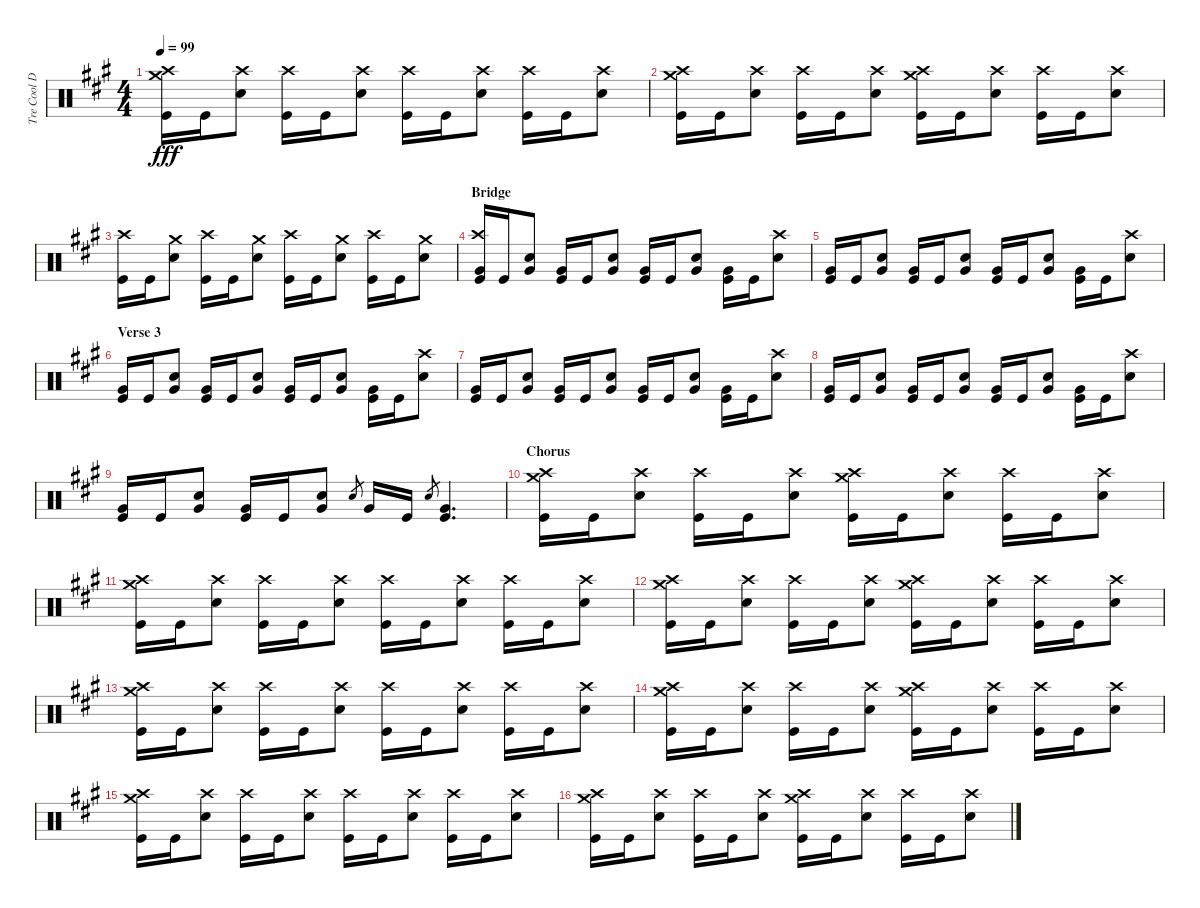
\track ("Tre Cool Drums" "Tre Cool D") {instrument percussion}
\staff {score}
\articulation defaults
\ts (4 4)
\tempo 99
\clef neutral
\ks a
("Kick (hit)" "Crash high (hit)" "Crash medium (hit)").16{dy fff} "Kick (hit)".16 ("Snare (hit) 2" "Crash high (hit)").8 ("Kick (hit)" "Crash high (hit)").16 "Kick (hit)".16 ("Snare (hit) 2" "Crash high (hit)").8 ("Kick (hit)" "Crash high (hit)").16 "Kick (hit)".16 ("Snare (hit) 2" "Crash high (hit)").8 ("Kick (hit)" "Crash high (hit)").16 "Kick (hit)".16 ("Snare (hit) 2" "Crash high (hit)").8 |
("Kick (hit)" "Crash high (hit)" "Crash medium (hit)").16 "Kick (hit)".16 ("Snare (hit) 2" "Crash high (hit)").8 ("Kick (hit)" "Crash high (hit)").16 "Kick (hit)".16 ("Snare (hit) 2" "Crash high (hit)").8 ("Kick (hit)" "Crash high (hit)" "Crash medium (hit)").16 "Kick (hit)".16 ("Snare (hit) 2" "Crash high (hit)").8 ("Kick (hit)" "Crash high (hit)").16 "Kick (hit)".16 ("Snare (hit) 2" "Crash high (hit)").8 |
("Kick (hit)" "Crash high (hit)").16 "Kick (hit)".16 ("Snare (hit) 2" "Crash medium (hit)").8 ("Kick (hit)" "Crash high (hit)").16 "Kick (hit)".16 ("Snare (hit) 2" "Crash medium (hit)").8 ("Kick (hit)" "Crash high (hit)").16 "Kick (hit)".16 ("Snare (hit) 2" "Crash medium (hit)").8 ("Kick (hit)" "Crash high (hit)").16 "Kick (hit)".16 ("Snare (hit) 2" "Crash medium (hit)").8 |
\section ("" "Bridge")
("Very Low Tom (hit)" "Kick (hit)" "Crash high (hit)").16 "Kick (hit)".16 ("Snare (hit) 2" "Very Low Tom (hit)").8 ("Very Low Tom (hit)" "Kick (hit)").16 "Kick (hit)".16 ("Snare (hit) 2" "Very Low Tom (hit)").8 ("Very Low Tom (hit)" "Kick (hit)").16 "Kick (hit)".16 ("Snare (hit) 2" "Very Low Tom (hit)").8 ("Very Low Tom (hit)" "Kick (hit)").16 "Kick (hit)".16 ("Snare (hit) 2" "Crash high (hit)").8 |
("Very Low Tom (hit)" "Kick (hit)").16 "Kick (hit)".16 ("Snare (hit) 2" "Very Low Tom (hit)").8 ("Very Low Tom (hit)" "Kick (hit)").16 "Kick (hit)".16 ("Snare (hit) 2" "Very Low Tom (hit)").8 ("Very Low Tom (hit)" "Kick (hit)").16 "Kick (hit)".16 ("Snare (hit) 2" "Very Low Tom (hit)").8 ("Very Low Tom (hit)" "Kick (hit)").16 "Kick (hit)".16 ("Snare (hit) 2" "Crash high (hit)").8 |
\section ("" "Verse 3")
("Very Low Tom (hit)" "Kick (hit)").16 "Kick (hit)".16 ("Snare (hit) 2" "Very Low Tom (hit)").8 ("Very Low Tom (hit)" "Kick (hit)").16 "Kick (hit)".16 ("Snare (hit) 2" "Very Low Tom (hit)").8 ("Very Low Tom (hit)" "Kick (hit)").16 "Kick (hit)".16 ("Snare (hit) 2" "Very Low Tom (hit)").8 ("Very Low Tom (hit)" "Kick (hit)").16 "Kick (hit)".16 ("Snare (hit) 2" "Crash high (hit)").8 |
("Very Low Tom (hit)" "Kick (hit)").16 "Kick (hit)".16 ("Snare (hit) 2" "Very Low Tom (hit)").8 ("Very Low Tom (hit)" "Kick (hit)").16 "Kick (hit)".16 ("Snare (hit) 2" "Very Low Tom (hit)").8 ("Very Low Tom (hit)" "Kick (hit)").16 "Kick (hit)".16 ("Snare (hit) 2" "Very Low Tom (hit)").8 ("Very Low Tom (hit)" "Kick (hit)").16 "Kick (hit)".16 ("Snare (hit) 2" "Crash high (hit)").8 |
("Very Low Tom (hit)" "Kick (hit)").16 "Kick (hit)".16 ("Snare (hit) 2" "Very Low Tom (hit)").8 ("Very Low Tom (hit)" "Kick (hit)").16 "Kick (hit)".16 ("Snare (hit) 2" "Very Low Tom (hit)").8 ("Very Low Tom (hit)" "Kick (hit)").16 "Kick (hit)".16 ("Snare (hit) 2" "Very Low Tom (hit)").8 ("Very Low Tom (hit)" "Kick (hit)").16 "Kick (hit)".16 ("Snare (hit) 2" "Crash high (hit)").8 |
("Very Low Tom (hit)" "Kick (hit)").16 "Kick (hit)".16 ("Snare (hit) 2" "Very Low Tom (hit)").8 ("Very Low Tom (hit)" "Kick (hit)").16 "Kick (hit)".16 ("Snare (hit) 2" "Very Low Tom (hit)").8 "Snare (hit)".8{gr} "Very Low Tom (hit)".16 "Kick (hit)".16 "Snare (hit)".8{gr} ("Very Low Tom (hit)" "Kick (hit)").4{d} |
\section ("" "Chorus")
("Kick (hit)" "Crash high (hit)" "Crash medium (hit)").16 "Kick (hit)".16 ("Snare (hit) 2" "Crash high (hit)").8 ("Kick (hit)" "Crash high (hit)").16 "Kick (hit)".16 ("Snare (hit) 2" "Crash high (hit)").8 ("Kick (hit)" "Crash high (hit)" "Crash medium (hit)").16 "Kick (hit)".16 ("Snare (hit) 2" "Crash high (hit)").8 ("Kick (hit)" "Crash high (hit)").16 "Kick (hit)".16 ("Snare (hit) 2" "Crash high (hit)").8 |
("Kick (hit)" "Crash high (hit)" "Crash medium (hit)").16 "Kick (hit)".16 ("Snare (hit) 2" "Crash high (hit)").8 ("Kick (hit)" "Crash high (hit)").16 "Kick (hit)".16 ("Snare (hit) 2" "Crash high (hit)").8 ("Kick (hit)" "Crash high (hit)").16 "Kick (hit)".16 ("Snare (hit) 2" "Crash high (hit)").8 ("Kick (hit)" "Crash high (hit)").16 "Kick (hit)".16 ("Snare (hit) 2" "Crash high (hit)").8 |
("Kick (hit)" "Crash high (hit)" "Crash medium (hit)").16 "Kick (hit)".16 ("Snare (hit) 2" "Crash high (hit)").8 ("Kick (hit)" "Crash high (hit)").16 "Kick (hit)".16 ("Snare (hit) 2" "Crash high (hit)").8 ("Kick (hit)" "Crash high (hit)" "Crash medium (hit)").16 "Kick (hit)".16 ("Snare (hit) 2" "Crash high (hit)").8 ("Kick (hit)" "Crash high (hit)").16 "Kick (hit)".16 ("Snare (hit) 2" "Crash high (hit)").8 |
("Kick (hit)" "Crash high (hit)" "Crash medium (hit)").16 "Kick (hit)".16 ("Snare (hit) 2" "Crash high (hit)").8 ("Kick (hit)" "Crash high (hit)").16 "Kick (hit)".16 ("Snare (hit) 2" "Crash high (hit)").8 ("Kick (hit)" "Crash high (hit)").16 "Kick (hit)".16 ("Snare (hit) 2" "Crash high (hit)").8 ("Kick (hit)" "Crash high (hit)").16 "Kick (hit)".16 ("Snare (hit) 2" "Crash high (hit)").8 |
("Kick (hit)" "Crash high (hit)" "Crash medium (hit)").16 "Kick (hit)".16 ("Snare (hit) 2" "Crash high (hit)").8 ("Kick (hit)" "Crash high (hit)").16 "Kick (hit)".16 ("Snare (hit) 2" "Crash high (hit)").8 ("Kick (hit)" "Crash high (hit)" "Crash medium (hit)").16 "Kick (hit)".16 ("Snare (hit) 2" "Crash high (hit)").8 ("Kick (hit)" "Crash high (hit)").16 "Kick (hit)".16 ("Snare (hit) 2" "Crash high (hit)").8 |
("Kick (hit)" "Crash high (hit)" "Crash medium (hit)").16 "Kick (hit)".16 ("Snare (hit) 2" "Crash high (hit)").8 ("Kick (hit)" "Crash high (hit)").16 "Kick (hit)".16 ("Snare (hit) 2" "Crash high (hit)").8 ("Kick (hit)" "Crash high (hit)").16 "Kick (hit)".16 ("Snare (hit) 2" "Crash high (hit)").8 ("Kick (hit)" "Crash high (hit)").16 "Kick (hit)".16 ("Snare (hit) 2" "Crash high (hit)").8 |
("Kick (hit)" "Crash high (hit)" "Crash medium (hit)").16 "Kick (hit)".16 ("Snare (hit) 2" "Crash high (hit)").8 ("Kick (hit)" "Crash high (hit)").16 "Kick (hit)".16 ("Snare (hit) 2" "Crash high (hit)").8 ("Kick (hit)" "Crash high (hit)" "Crash medium (hit)").16 "Kick (hit)".16 ("Snare (hit) 2" "Crash high (hit)").8 ("Kick (hit)" "Crash high (hit)").16 "Kick (hit)".16 ("Snare (hit) 2" "Crash high (hit)").8
